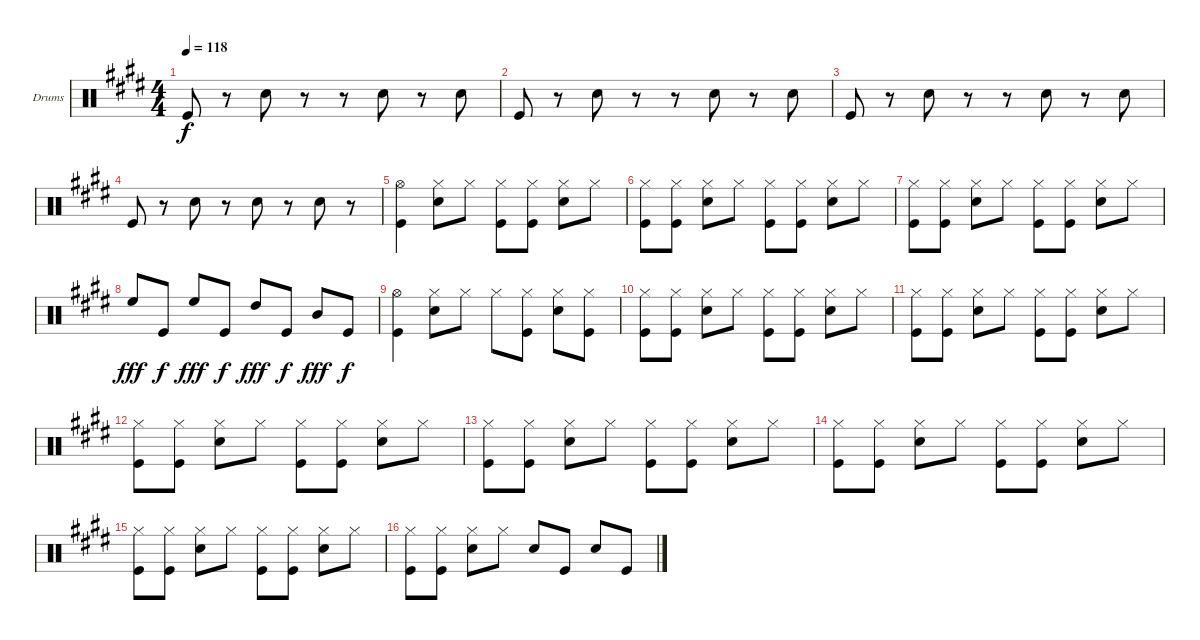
\bracketExtendMode groupsimilarinstruments
\firstSystemTrackNameOrientation horizontal
\otherSystemsTrackNameOrientation horizontal
\track ("Drumkit" "Drums") {instrument percussion}
\staff {score}
\articulation defaults
\ts (4 4)
\tempo 118
\clef neutral
\ks e "Kick (hit)".8{dy f}
r.8 "Snare (hit) 2".8 r.8 r.8 "Snare (hit) 2".8 r.8 "Snare (hit) 2".8 |
"Kick (hit)".8 r.8 "Snare (hit) 2".8 r.8 r.8 "Snare (hit) 2".8 r.8 "Snare (hit) 2".8 |
"Kick (hit)".8 r.8 "Snare (hit) 2".8 r.8 r.8 "Snare (hit) 2".8 r.8 "Snare (hit) 2".8 |
"Kick (hit)".8 r.8 "Snare (hit) 2".8 r.8 "Snare (hit) 2".8 r.8 "Snare (hit) 2".8 r.8 |
("Hi-Hat (open)" "Kick (hit)").4 ("Hi-Hat (closed)" "Snare (hit) 2").8 "Hi-Hat (closed)".8 ("Hi-Hat (closed)" "Kick (hit)").8 ("Hi-Hat (closed)" "Kick (hit)").8 ("Hi-Hat (closed)" "Snare (hit) 2").8 "Hi-Hat (closed)".8 |
("Hi-Hat (closed)" "Kick (hit)").8 ("Hi-Hat (closed)" "Kick (hit)").8 ("Hi-Hat (closed)" "Snare (hit) 2").8 "Hi-Hat (closed)".8 ("Hi-Hat (closed)" "Kick (hit)").8 ("Hi-Hat (closed)" "Kick (hit)").8 ("Hi-Hat (closed)" "Snare (hit) 2").8 "Hi-Hat (closed)".8 |
("Hi-Hat (closed)" "Kick (hit)").8 ("Hi-Hat (closed)" "Kick (hit)").8 ("Hi-Hat (closed)" "Snare (hit) 2").8 "Hi-Hat (closed)".8 ("Hi-Hat (closed)" "Kick (hit)").8 ("Hi-Hat (closed)" "Kick (hit)").8 ("Hi-Hat (closed)" "Snare (hit) 2").8 "Hi-Hat (closed)".8 |
"High Floor Tom (hit)".8{dy fff} "Kick (hit)".8{dy f} "High Floor Tom (hit)".8{dy fff} "Kick (hit)".8{dy f} "High Tom (hit)".8{dy fff} "Kick (hit)".8{dy f} "Mid Tom (hit)".8{dy fff} "Kick (hit)".8{dy f} |
("Hi-Hat (open)" "Kick (hit)").4 ("Hi-Hat (closed)" "Snare (hit) 2").8 "Hi-Hat (closed)".8 "Hi-Hat (closed)".8 ("Hi-Hat (closed)" "Kick (hit)").8 ("Hi-Hat (closed)" "Snare (hit) 2").8 ("Hi-Hat (closed)" "Kick (hit)").8 |
("Hi-Hat (closed)" "Kick (hit)").8 ("Hi-Hat (closed)" "Kick (hit)").8 ("Hi-Hat (closed)" "Snare (hit) 2").8 "Hi-Hat (closed)".8 ("Hi-Hat (closed)" "Kick (hit)").8 ("Hi-Hat (closed)" "Kick (hit)").8 ("Hi-Hat (closed)" "Snare (hit) 2").8 "Hi-Hat (closed)".8 |
("Hi-Hat (closed)" "Kick (hit)").8 ("Hi-Hat (closed)" "Kick (hit)").8 ("Hi-Hat (closed)" "Snare (hit) 2").8 "Hi-Hat (closed)".8 ("Hi-Hat (closed)" "Kick (hit)").8 ("Hi-Hat (closed)" "Kick (hit)").8 ("Hi-Hat (closed)" "Snare (hit) 2").8 "Hi-Hat (closed)".8 |
("Hi-Hat (closed)" "Kick (hit)").8 ("Hi-Hat (closed)" "Kick (hit)").8 ("Hi-Hat (closed)" "Snare (hit) 2").8 "Hi-Hat (closed)".8 ("Hi-Hat (closed)" "Kick (hit)").8 ("Hi-Hat (closed)" "Kick (hit)").8 ("Hi-Hat (closed)" "Snare (hit) 2").8 "Hi-Hat (closed)".8 |
("Hi-Hat (closed)" "Kick (hit)").8 ("Hi-Hat (closed)" "Kick (hit)").8 ("Hi-Hat (closed)" "Snare (hit) 2").8 "Hi-Hat (closed)".8 ("Hi-Hat (closed)" "Kick (hit)").8 ("Hi-Hat (closed)" "Kick (hit)").8 ("Hi-Hat (closed)" "Snare (hit) 2").8 "Hi-Hat (closed)".8 |
("Hi-Hat (closed)" "Kick (hit)").8 ("Hi-Hat (closed)" "Kick (hit)").8 ("Hi-Hat (closed)" "Snare (hit) 2").8 "Hi-Hat (closed)".8 ("Hi-Hat (closed)" "Kick (hit)").8 ("Hi-Hat (closed)" "Kick (hit)").8 ("Hi-Hat (closed)" "Snare (hit) 2").8 "Hi-Hat (closed)".8 |
("Hi-Hat (closed)" "Kick (hit)").8 ("Hi-Hat (closed)" "Kick (hit)").8 ("Hi-Hat (closed)" "Snare (hit) 2").8 "Hi-Hat (closed)".8 ("Hi-Hat (closed)" "Kick (hit)").8 ("Hi-Hat (closed)" "Kick (hit)").8 ("Hi-Hat (closed)" "Snare (hit) 2").8 "Hi-Hat (closed)".8 |
("Hi-Hat (closed)" "Kick (hit)").8 ("Hi-Hat (closed)" "Kick (hit)").8 ("Hi-Hat (closed)" "Snare (hit) 2").8 "Hi-Hat (closed)".8 "Snare (hit) 2".8 "Kick (hit)".8 "Snare (hit) 2".8 "Kick (hit)".8
